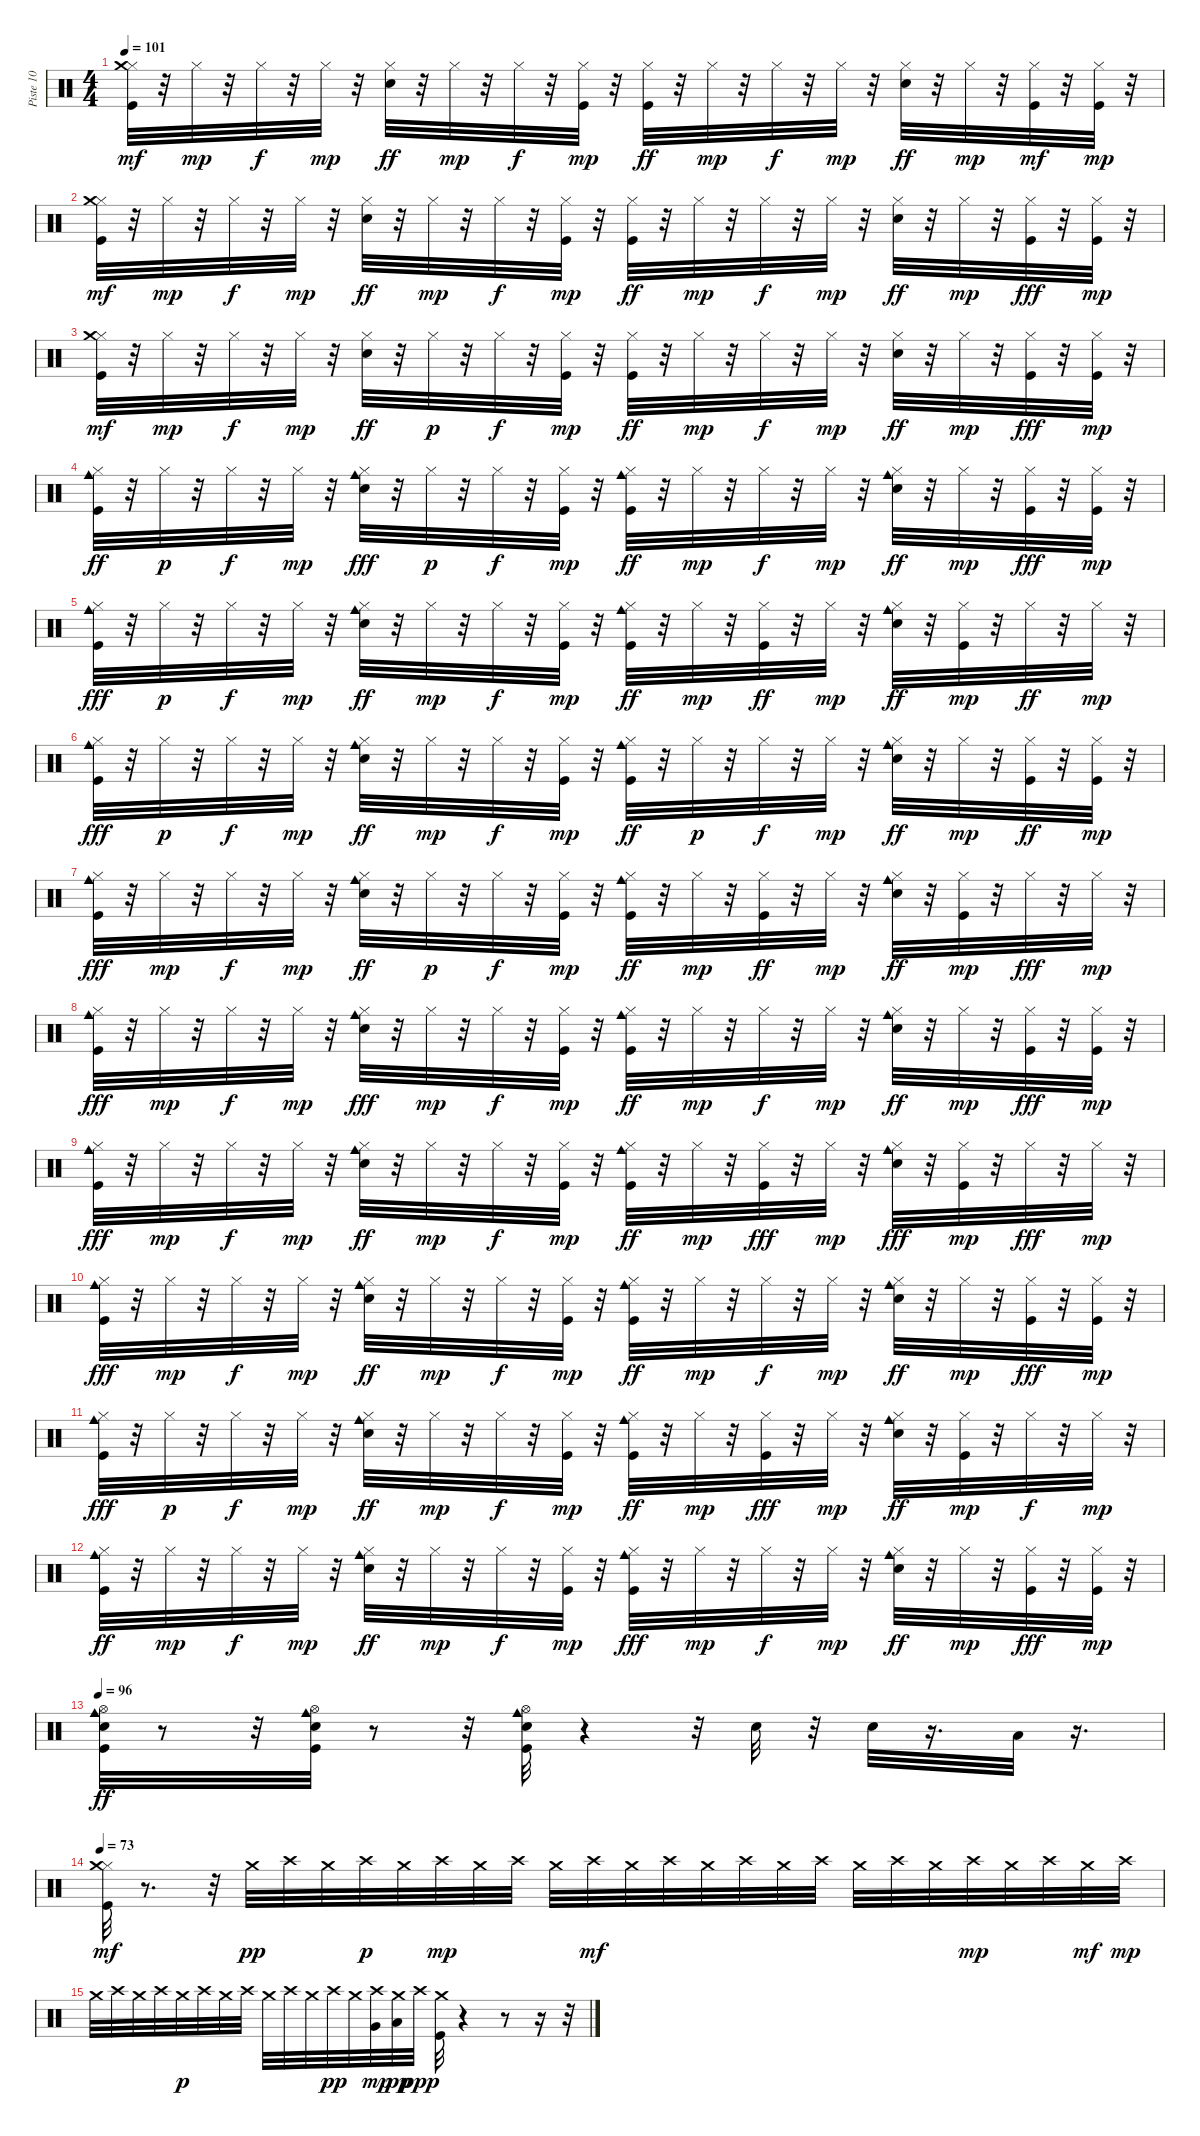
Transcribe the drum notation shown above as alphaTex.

\track ("Piste 10" "Piste 10") {instrument percussion}
\staff {score}
\articulation defaults
\ts (4 4)
\tempo 101
\clef neutral
\ks c
("Kick (hit)" "Hi-Hat (closed)" "Crash medium (hit)").32{dy mf} r.32 "Hi-Hat (closed)".32{dy mp} r.32 "Hi-Hat (closed)".32{dy f} r.32 "Hi-Hat (closed)".32{dy mp} r.32 ("Electric Snare (hit)" "Hi-Hat (closed)").32{dy ff} r.32 "Hi-Hat (closed)".32{dy mp} r.32 "Hi-Hat (closed)".32{dy f} r.32 ("Kick (hit)" "Hi-Hat (closed)").32{dy mp} r.32 ("Kick (hit)" "Hi-Hat (closed)").32{dy ff} r.32 "Hi-Hat (closed)".32{dy mp} r.32 "Hi-Hat (closed)".32{dy f} r.32 "Hi-Hat (closed)".32{dy mp} r.32 ("Electric Snare (hit)" "Hi-Hat (closed)").32{dy ff} r.32 "Hi-Hat (closed)".32{dy mp} r.32 ("Kick (hit)" "Hi-Hat (closed)").32{dy mf} r.32 ("Kick (hit)" "Hi-Hat (closed)").32{dy mp} r.32 |
("Kick (hit)" "Hi-Hat (closed)" "Crash medium (hit)").32{dy mf} r.32 "Hi-Hat (closed)".32{dy mp} r.32 "Hi-Hat (closed)".32{dy f} r.32 "Hi-Hat (closed)".32{dy mp} r.32 ("Electric Snare (hit)" "Hi-Hat (closed)").32{dy ff} r.32 "Hi-Hat (closed)".32{dy mp} r.32 "Hi-Hat (closed)".32{dy f} r.32 ("Kick (hit)" "Hi-Hat (closed)").32{dy mp} r.32 ("Kick (hit)" "Hi-Hat (closed)").32{dy ff} r.32 "Hi-Hat (closed)".32{dy mp} r.32 "Hi-Hat (closed)".32{dy f} r.32 "Hi-Hat (closed)".32{dy mp} r.32 ("Electric Snare (hit)" "Hi-Hat (closed)").32{dy ff} r.32 "Hi-Hat (closed)".32{dy mp} r.32 ("Kick (hit)" "Hi-Hat (closed)").32{dy fff} r.32 ("Kick (hit)" "Hi-Hat (closed)").32{dy mp} r.32 |
("Kick (hit)" "Hi-Hat (closed)" "Crash medium (hit)").32{dy mf} r.32 "Hi-Hat (closed)".32{dy mp} r.32 "Hi-Hat (closed)".32{dy f} r.32 "Hi-Hat (closed)".32{dy mp} r.32 ("Electric Snare (hit)" "Hi-Hat (closed)").32{dy ff} r.32 "Hi-Hat (closed)".32{dy p} r.32 "Hi-Hat (closed)".32{dy f} r.32 ("Kick (hit)" "Hi-Hat (closed)").32{dy mp} r.32 ("Kick (hit)" "Hi-Hat (closed)").32{dy ff} r.32 "Hi-Hat (closed)".32{dy mp} r.32 "Hi-Hat (closed)".32{dy f} r.32 "Hi-Hat (closed)".32{dy mp} r.32 ("Electric Snare (hit)" "Hi-Hat (closed)").32{dy ff} r.32 "Hi-Hat (closed)".32{dy mp} r.32 ("Kick (hit)" "Hi-Hat (closed)").32{dy fff} r.32 ("Kick (hit)" "Hi-Hat (closed)").32{dy mp} r.32 |
("Kick (hit)" "Hi-Hat (closed)" "Cowbell medium (hit)").32{dy ff} r.32 "Hi-Hat (closed)".32{dy p} r.32 "Hi-Hat (closed)".32{dy f} r.32 "Hi-Hat (closed)".32{dy mp} r.32 ("Electric Snare (hit)" "Hi-Hat (closed)" "Cowbell medium (hit)").32{dy fff} r.32 "Hi-Hat (closed)".32{dy p} r.32 "Hi-Hat (closed)".32{dy f} r.32 ("Kick (hit)" "Hi-Hat (closed)").32{dy mp} r.32 ("Kick (hit)" "Hi-Hat (closed)" "Cowbell medium (hit)").32{dy ff} r.32 "Hi-Hat (closed)".32{dy mp} r.32 "Hi-Hat (closed)".32{dy f} r.32 "Hi-Hat (closed)".32{dy mp} r.32 ("Electric Snare (hit)" "Hi-Hat (closed)" "Cowbell medium (hit)").32{dy ff} r.32 "Hi-Hat (closed)".32{dy mp} r.32 ("Kick (hit)" "Hi-Hat (closed)").32{dy fff} r.32 ("Kick (hit)" "Hi-Hat (closed)").32{dy mp} r.32 |
("Kick (hit)" "Hi-Hat (closed)" "Cowbell medium (hit)").32{dy fff} r.32 "Hi-Hat (closed)".32{dy p} r.32 "Hi-Hat (closed)".32{dy f} r.32 "Hi-Hat (closed)".32{dy mp} r.32 ("Electric Snare (hit)" "Hi-Hat (closed)" "Cowbell medium (hit)").32{dy ff} r.32 "Hi-Hat (closed)".32{dy mp} r.32 "Hi-Hat (closed)".32{dy f} r.32 ("Kick (hit)" "Hi-Hat (closed)").32{dy mp} r.32 ("Kick (hit)" "Hi-Hat (closed)" "Cowbell medium (hit)").32{dy ff} r.32 "Hi-Hat (closed)".32{dy mp} r.32 ("Kick (hit)" "Hi-Hat (closed)").32{dy ff} r.32 "Hi-Hat (closed)".32{dy mp} r.32 ("Electric Snare (hit)" "Hi-Hat (closed)" "Cowbell medium (hit)").32{dy ff} r.32 ("Kick (hit)" "Hi-Hat (closed)").32{dy mp} r.32 "Hi-Hat (closed)".32{dy ff} r.32 "Hi-Hat (closed)".32{dy mp} r.32 |
("Kick (hit)" "Hi-Hat (closed)" "Cowbell medium (hit)").32{dy fff} r.32 "Hi-Hat (closed)".32{dy p} r.32 "Hi-Hat (closed)".32{dy f} r.32 "Hi-Hat (closed)".32{dy mp} r.32 ("Electric Snare (hit)" "Hi-Hat (closed)" "Cowbell medium (hit)").32{dy ff} r.32 "Hi-Hat (closed)".32{dy mp} r.32 "Hi-Hat (closed)".32{dy f} r.32 ("Kick (hit)" "Hi-Hat (closed)").32{dy mp} r.32 ("Kick (hit)" "Hi-Hat (closed)" "Cowbell medium (hit)").32{dy ff} r.32 "Hi-Hat (closed)".32{dy p} r.32 "Hi-Hat (closed)".32{dy f} r.32 "Hi-Hat (closed)".32{dy mp} r.32 ("Electric Snare (hit)" "Hi-Hat (closed)" "Cowbell medium (hit)").32{dy ff} r.32 "Hi-Hat (closed)".32{dy mp} r.32 ("Kick (hit)" "Hi-Hat (closed)").32{dy ff} r.32 ("Kick (hit)" "Hi-Hat (closed)").32{dy mp} r.32 |
("Kick (hit)" "Hi-Hat (closed)" "Cowbell medium (hit)").32{dy fff} r.32 "Hi-Hat (closed)".32{dy mp} r.32 "Hi-Hat (closed)".32{dy f} r.32 "Hi-Hat (closed)".32{dy mp} r.32 ("Electric Snare (hit)" "Hi-Hat (closed)" "Cowbell medium (hit)").32{dy ff} r.32 "Hi-Hat (closed)".32{dy p} r.32 "Hi-Hat (closed)".32{dy f} r.32 ("Kick (hit)" "Hi-Hat (closed)").32{dy mp} r.32 ("Kick (hit)" "Hi-Hat (closed)" "Cowbell medium (hit)").32{dy ff} r.32 "Hi-Hat (closed)".32{dy mp} r.32 ("Kick (hit)" "Hi-Hat (closed)").32{dy ff} r.32 "Hi-Hat (closed)".32{dy mp} r.32 ("Electric Snare (hit)" "Hi-Hat (closed)" "Cowbell medium (hit)").32{dy ff} r.32 ("Kick (hit)" "Hi-Hat (closed)").32{dy mp} r.32 "Hi-Hat (closed)".32{dy fff} r.32 "Hi-Hat (closed)".32{dy mp} r.32 |
("Kick (hit)" "Hi-Hat (closed)" "Cowbell medium (hit)").32{dy fff} r.32 "Hi-Hat (closed)".32{dy mp} r.32 "Hi-Hat (closed)".32{dy f} r.32 "Hi-Hat (closed)".32{dy mp} r.32 ("Electric Snare (hit)" "Hi-Hat (closed)" "Cowbell medium (hit)").32{dy fff} r.32 "Hi-Hat (closed)".32{dy mp} r.32 "Hi-Hat (closed)".32{dy f} r.32 ("Kick (hit)" "Hi-Hat (closed)").32{dy mp} r.32 ("Kick (hit)" "Hi-Hat (closed)" "Cowbell medium (hit)").32{dy ff} r.32 "Hi-Hat (closed)".32{dy mp} r.32 "Hi-Hat (closed)".32{dy f} r.32 "Hi-Hat (closed)".32{dy mp} r.32 ("Electric Snare (hit)" "Hi-Hat (closed)" "Cowbell medium (hit)").32{dy ff} r.32 "Hi-Hat (closed)".32{dy mp} r.32 ("Kick (hit)" "Hi-Hat (closed)").32{dy fff} r.32 ("Kick (hit)" "Hi-Hat (closed)").32{dy mp} r.32 |
("Kick (hit)" "Hi-Hat (closed)" "Cowbell medium (hit)").32{dy fff} r.32 "Hi-Hat (closed)".32{dy mp} r.32 "Hi-Hat (closed)".32{dy f} r.32 "Hi-Hat (closed)".32{dy mp} r.32 ("Electric Snare (hit)" "Hi-Hat (closed)" "Cowbell medium (hit)").32{dy ff} r.32 "Hi-Hat (closed)".32{dy mp} r.32 "Hi-Hat (closed)".32{dy f} r.32 ("Kick (hit)" "Hi-Hat (closed)").32{dy mp} r.32 ("Kick (hit)" "Hi-Hat (closed)" "Cowbell medium (hit)").32{dy ff} r.32 "Hi-Hat (closed)".32{dy mp} r.32 ("Kick (hit)" "Hi-Hat (closed)").32{dy fff} r.32 "Hi-Hat (closed)".32{dy mp} r.32 ("Electric Snare (hit)" "Hi-Hat (closed)" "Cowbell medium (hit)").32{dy fff} r.32 ("Kick (hit)" "Hi-Hat (closed)").32{dy mp} r.32 "Hi-Hat (closed)".32{dy fff} r.32 "Hi-Hat (closed)".32{dy mp} r.32 |
("Kick (hit)" "Hi-Hat (closed)" "Cowbell medium (hit)").32{dy fff} r.32 "Hi-Hat (closed)".32{dy mp} r.32 "Hi-Hat (closed)".32{dy f} r.32 "Hi-Hat (closed)".32{dy mp} r.32 ("Electric Snare (hit)" "Hi-Hat (closed)" "Cowbell medium (hit)").32{dy ff} r.32 "Hi-Hat (closed)".32{dy mp} r.32 "Hi-Hat (closed)".32{dy f} r.32 ("Kick (hit)" "Hi-Hat (closed)").32{dy mp} r.32 ("Kick (hit)" "Hi-Hat (closed)" "Cowbell medium (hit)").32{dy ff} r.32 "Hi-Hat (closed)".32{dy mp} r.32 "Hi-Hat (closed)".32{dy f} r.32 "Hi-Hat (closed)".32{dy mp} r.32 ("Electric Snare (hit)" "Hi-Hat (closed)" "Cowbell medium (hit)").32{dy ff} r.32 "Hi-Hat (closed)".32{dy mp} r.32 ("Kick (hit)" "Hi-Hat (closed)").32{dy fff} r.32 ("Kick (hit)" "Hi-Hat (closed)").32{dy mp} r.32 |
("Kick (hit)" "Hi-Hat (closed)" "Cowbell medium (hit)").32{dy fff} r.32 "Hi-Hat (closed)".32{dy p} r.32 "Hi-Hat (closed)".32{dy f} r.32 "Hi-Hat (closed)".32{dy mp} r.32 ("Electric Snare (hit)" "Hi-Hat (closed)" "Cowbell medium (hit)").32{dy ff} r.32 "Hi-Hat (closed)".32{dy mp} r.32 "Hi-Hat (closed)".32{dy f} r.32 ("Kick (hit)" "Hi-Hat (closed)").32{dy mp} r.32 ("Kick (hit)" "Hi-Hat (closed)" "Cowbell medium (hit)").32{dy ff} r.32 "Hi-Hat (closed)".32{dy mp} r.32 ("Kick (hit)" "Hi-Hat (closed)").32{dy fff} r.32 "Hi-Hat (closed)".32{dy mp} r.32 ("Electric Snare (hit)" "Hi-Hat (closed)" "Cowbell medium (hit)").32{dy ff} r.32 ("Kick (hit)" "Hi-Hat (closed)").32{dy mp} r.32 "Hi-Hat (closed)".32{dy f} r.32 "Hi-Hat (closed)".32{dy mp} r.32 |
("Kick (hit)" "Hi-Hat (closed)" "Cowbell medium (hit)").32{dy ff} r.32 "Hi-Hat (closed)".32{dy mp} r.32 "Hi-Hat (closed)".32{dy f} r.32 "Hi-Hat (closed)".32{dy mp} r.32 ("Electric Snare (hit)" "Hi-Hat (closed)" "Cowbell medium (hit)").32{dy ff} r.32 "Hi-Hat (closed)".32{dy mp} r.32 "Hi-Hat (closed)".32{dy f} r.32 ("Kick (hit)" "Hi-Hat (closed)").32{dy mp} r.32 ("Kick (hit)" "Hi-Hat (closed)" "Cowbell medium (hit)").32{dy fff} r.32 "Hi-Hat (closed)".32{dy mp} r.32 "Hi-Hat (closed)".32{dy f} r.32 "Hi-Hat (closed)".32{dy mp} r.32 ("Electric Snare (hit)" "Hi-Hat (closed)" "Cowbell medium (hit)").32{dy ff} r.32 "Hi-Hat (closed)".32{dy mp} r.32 ("Kick (hit)" "Hi-Hat (closed)").32{dy fff} r.32 ("Kick (hit)" "Hi-Hat (closed)").32{dy mp} r.32 |
\tempo 96
("Kick (hit)" "Electric Snare (hit)" "Hi-Hat (open)" "Cowbell medium (hit)").32{dy ff} r.8 r.32 ("Kick (hit)" "Electric Snare (hit)" "Hi-Hat (open)" "Cowbell medium (hit)").32 r.8 r.32 ("Kick (hit)" "Electric Snare (hit)" "Hi-Hat (open)" "Cowbell medium (hit)").32 r.4 r.32 "Electric Snare (hit)".32 r.32 "Electric Snare (hit)".32 r.16{d} "Low Tom (hit)".32 r.16{d} |
\tempo 73
("Kick (hit)" "Hi-Hat (closed)" "Crash medium (hit)").32{dy mf} r.8{d} r.32 "Crash medium (hit)".32{dy pp} "Crash high (hit)".32 "Crash medium (hit)".32 "Crash high (hit)".32{dy p} "Crash medium (hit)".32 "Crash high (hit)".32{dy mp} "Crash medium (hit)".32 "Crash high (hit)".32 "Crash medium (hit)".32 "Crash high (hit)".32{dy mf} "Crash medium (hit)".32 "Crash high (hit)".32 "Crash medium (hit)".32 "Crash high (hit)".32 "Crash medium (hit)".32 "Crash high (hit)".32 "Crash medium (hit)".32 "Crash high (hit)".32 "Crash medium (hit)".32 "Crash high (hit)".32{dy mp} "Crash medium (hit)".32 "Crash high (hit)".32 "Crash medium (hit)".32{dy mf} "Crash high (hit)".32{dy mp} |
"Crash medium (hit)".32 "Crash high (hit)".32 "Crash medium (hit)".32 "Crash high (hit)".32 "Crash medium (hit)".32{dy p} "Crash high (hit)".32 "Crash medium (hit)".32 "Crash high (hit)".32 "Crash medium (hit)".32 "Crash high (hit)".32 "Crash medium (hit)".32 "Crash high (hit)".32{dy pp} "Crash medium (hit)".32 ("Crash high (hit)" "Very Low Tom (hit)").32{dy mp} ("Low Floor Tom (hit)" "Crash medium (hit)").32{dy pp} "Crash high (hit)".32{dy ppp} ("Kick (hit)" "Crash medium (hit)").32 r.4 r.8 r.16 r.32
